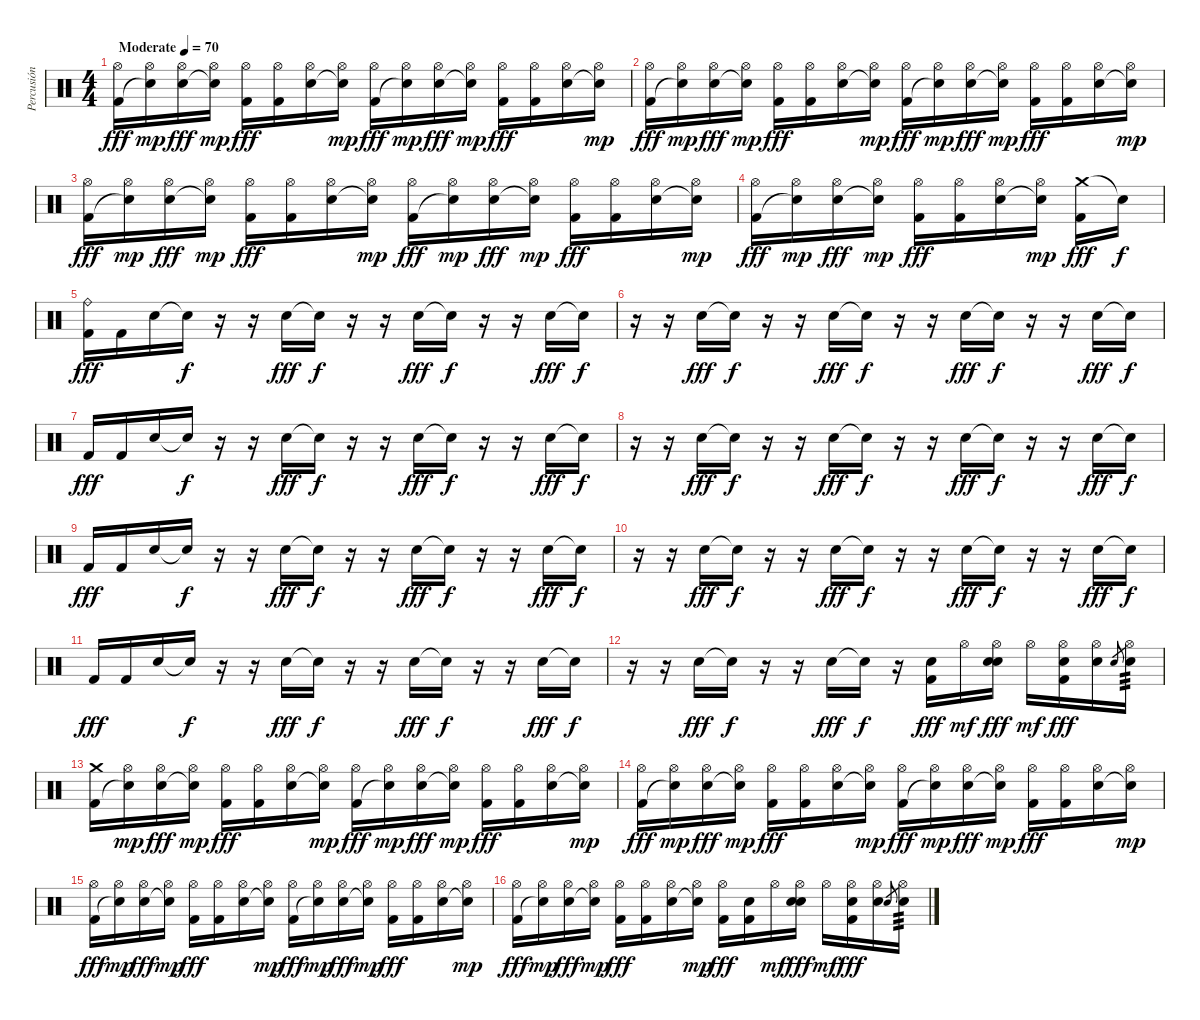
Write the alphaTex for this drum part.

\track ("Percusión" "Percusión") {instrument percussion}
\staff {score}
\articulation defaults
\ts (4 4)
\tempo (70 "Moderate")
\clef neutral
\ks c
("Hi-Hat (open)" "Kick (hit) 2").16{dy fff} ("Hi-Hat (open)" "Snare (hit)"{t}).16{dy mp} ("Hi-Hat (open)" "Electric Snare (hit)").16{dy fff} ("Hi-Hat (open)" "Snare (hit)"{t}).16{dy mp} ("Hi-Hat (open)" "Kick (hit) 2").16{dy fff} ("Hi-Hat (open)" "Kick (hit) 2").16 ("Hi-Hat (open)" "Electric Snare (hit)").16 ("Hi-Hat (open)" "Snare (hit)"{t}).16{dy mp} ("Hi-Hat (open)" "Kick (hit) 2").16{dy fff} ("Hi-Hat (open)" "Snare (hit)"{t}).16{dy mp} ("Hi-Hat (open)" "Electric Snare (hit)").16{dy fff} ("Hi-Hat (open)" "Snare (hit)"{t}).16{dy mp} ("Hi-Hat (open)" "Kick (hit) 2").16{dy fff} ("Hi-Hat (open)" "Kick (hit) 2").16 ("Hi-Hat (open)" "Electric Snare (hit)").16 ("Hi-Hat (open)" "Snare (hit)"{t}).16{dy mp} |
("Hi-Hat (open)" "Kick (hit) 2").16{dy fff} ("Hi-Hat (open)" "Snare (hit)"{t}).16{dy mp} ("Hi-Hat (open)" "Electric Snare (hit)").16{dy fff} ("Hi-Hat (open)" "Snare (hit)"{t}).16{dy mp} ("Hi-Hat (open)" "Kick (hit) 2").16{dy fff} ("Hi-Hat (open)" "Kick (hit) 2").16 ("Hi-Hat (open)" "Electric Snare (hit)").16 ("Hi-Hat (open)" "Snare (hit)"{t}).16{dy mp} ("Hi-Hat (open)" "Kick (hit) 2").16{dy fff} ("Hi-Hat (open)" "Snare (hit)"{t}).16{dy mp} ("Hi-Hat (open)" "Electric Snare (hit)").16{dy fff} ("Hi-Hat (open)" "Snare (hit)"{t}).16{dy mp} ("Hi-Hat (open)" "Kick (hit) 2").16{dy fff} ("Hi-Hat (open)" "Kick (hit) 2").16 ("Hi-Hat (open)" "Electric Snare (hit)").16 ("Hi-Hat (open)" "Snare (hit)"{t}).16{dy mp} |
("Hi-Hat (open)" "Kick (hit) 2").16{dy fff} ("Hi-Hat (open)" "Snare (hit)"{t}).16{dy mp} ("Hi-Hat (open)" "Electric Snare (hit)").16{dy fff} ("Hi-Hat (open)" "Snare (hit)"{t}).16{dy mp} ("Hi-Hat (open)" "Kick (hit) 2").16{dy fff} ("Hi-Hat (open)" "Kick (hit) 2").16 ("Hi-Hat (open)" "Electric Snare (hit)").16 ("Hi-Hat (open)" "Snare (hit)"{t}).16{dy mp} ("Hi-Hat (open)" "Kick (hit) 2").16{dy fff} ("Hi-Hat (open)" "Snare (hit)"{t}).16{dy mp} ("Hi-Hat (open)" "Electric Snare (hit)").16{dy fff} ("Hi-Hat (open)" "Snare (hit)"{t}).16{dy mp} ("Hi-Hat (open)" "Kick (hit) 2").16{dy fff} ("Hi-Hat (open)" "Kick (hit) 2").16 ("Hi-Hat (open)" "Electric Snare (hit)").16 ("Hi-Hat (open)" "Snare (hit)"{t}).16{dy mp} |
("Hi-Hat (open)" "Kick (hit) 2").16{dy fff} ("Hi-Hat (open)" "Snare (hit)"{t}).16{dy mp} ("Hi-Hat (open)" "Electric Snare (hit)").16{dy fff} ("Hi-Hat (open)" "Snare (hit)"{t}).16{dy mp} ("Hi-Hat (open)" "Kick (hit) 2").16{dy fff} ("Hi-Hat (open)" "Kick (hit) 2").16 ("Hi-Hat (open)" "Electric Snare (hit)").16 ("Hi-Hat (open)" "Snare (hit)"{t}).16{dy mp} ("Crash medium (hit)" "Kick (hit) 2").16{dy fff} "Snare (hit)"{t}.16{dy f} |
("Ride (bell)" "Kick (hit) 2").16{dy fff} "Kick (hit) 2".16 "Electric Snare (hit)".16 "Snare (hit)"{t}.16{dy f} r.16 r.16 "Electric Snare (hit)".16{dy fff} "Snare (hit)"{t}.16{dy f} r.16 r.16 "Electric Snare (hit)".16{dy fff} "Snare (hit)"{t}.16{dy f} r.16 r.16 "Electric Snare (hit)".16{dy fff} "Snare (hit)"{t}.16{dy f} |
r.16 r.16 "Electric Snare (hit)".16{dy fff} "Snare (hit)"{t}.16{dy f} r.16 r.16 "Electric Snare (hit)".16{dy fff} "Snare (hit)"{t}.16{dy f} r.16 r.16 "Electric Snare (hit)".16{dy fff} "Snare (hit)"{t}.16{dy f} r.16 r.16 "Electric Snare (hit)".16{dy fff} "Snare (hit)"{t}.16{dy f} |
"Kick (hit) 2".16{dy fff} "Kick (hit) 2".16 "Electric Snare (hit)".16 "Snare (hit)"{t}.16{dy f} r.16 r.16 "Electric Snare (hit)".16{dy fff} "Snare (hit)"{t}.16{dy f} r.16 r.16 "Electric Snare (hit)".16{dy fff} "Snare (hit)"{t}.16{dy f} r.16 r.16 "Electric Snare (hit)".16{dy fff} "Snare (hit)"{t}.16{dy f} |
r.16 r.16 "Electric Snare (hit)".16{dy fff} "Snare (hit)"{t}.16{dy f} r.16 r.16 "Electric Snare (hit)".16{dy fff} "Snare (hit)"{t}.16{dy f} r.16 r.16 "Electric Snare (hit)".16{dy fff} "Snare (hit)"{t}.16{dy f} r.16 r.16 "Electric Snare (hit)".16{dy fff} "Snare (hit)"{t}.16{dy f} |
"Kick (hit) 2".16{dy fff} "Kick (hit) 2".16 "Electric Snare (hit)".16 "Snare (hit)"{t}.16{dy f} r.16 r.16 "Electric Snare (hit)".16{dy fff} "Snare (hit)"{t}.16{dy f} r.16 r.16 "Electric Snare (hit)".16{dy fff} "Snare (hit)"{t}.16{dy f} r.16 r.16 "Electric Snare (hit)".16{dy fff} "Snare (hit)"{t}.16{dy f} |
r.16 r.16 "Electric Snare (hit)".16{dy fff} "Snare (hit)"{t}.16{dy f} r.16 r.16 "Electric Snare (hit)".16{dy fff} "Snare (hit)"{t}.16{dy f} r.16 r.16 "Electric Snare (hit)".16{dy fff} "Snare (hit)"{t}.16{dy f} r.16 r.16 "Electric Snare (hit)".16{dy fff} "Snare (hit)"{t}.16{dy f} |
"Kick (hit) 2".16{dy fff} "Kick (hit) 2".16 "Electric Snare (hit)".16 "Snare (hit)"{t}.16{dy f} r.16 r.16 "Electric Snare (hit)".16{dy fff} "Snare (hit)"{t}.16{dy f} r.16 r.16 "Electric Snare (hit)".16{dy fff} "Snare (hit)"{t}.16{dy f} r.16 r.16 "Electric Snare (hit)".16{dy fff} "Snare (hit)"{t}.16{dy f} |
r.16 r.16 "Electric Snare (hit)".16{dy fff} "Snare (hit)"{t}.16{dy f} r.16 r.16 "Electric Snare (hit)".16{dy fff} "Snare (hit)"{t}.16{dy f} r.16 ("Electric Snare (hit)" "Kick (hit) 2").16{dy fff} "Hi-Hat (open)".16{dy mf} ("Hi-Hat (open)" "Electric Snare (hit)" "Snare (hit)").16{dy fff} "Hi-Hat (open)".16{dy mf} ("Hi-Hat (open)" "Electric Snare (hit)" "Kick (hit) 2").16{dy fff} ("Hi-Hat (open)" "Electric Snare (hit)").16 "Electric Snare (hit)".8{gr} ("Hi-Hat (open)" "Electric Snare (hit)").16{tp 3} |
("Crash medium (hit)" "Kick (hit) 2").16 ("Hi-Hat (open)" "Snare (hit)"{t}).16{dy mp} ("Hi-Hat (open)" "Electric Snare (hit)").16{dy fff} ("Hi-Hat (open)" "Snare (hit)"{t}).16{dy mp} ("Hi-Hat (open)" "Kick (hit) 2").16{dy fff} ("Hi-Hat (open)" "Kick (hit) 2").16 ("Hi-Hat (open)" "Electric Snare (hit)").16 ("Hi-Hat (open)" "Snare (hit)"{t}).16{dy mp} ("Hi-Hat (open)" "Kick (hit) 2").16{dy fff} ("Hi-Hat (open)" "Snare (hit)"{t}).16{dy mp} ("Hi-Hat (open)" "Electric Snare (hit)").16{dy fff} ("Hi-Hat (open)" "Snare (hit)"{t}).16{dy mp} ("Hi-Hat (open)" "Kick (hit) 2").16{dy fff} ("Hi-Hat (open)" "Kick (hit) 2").16 ("Hi-Hat (open)" "Electric Snare (hit)").16 ("Hi-Hat (open)" "Snare (hit)"{t}).16{dy mp} |
("Hi-Hat (open)" "Kick (hit) 2").16{dy fff} ("Hi-Hat (open)" "Snare (hit)"{t}).16{dy mp} ("Hi-Hat (open)" "Electric Snare (hit)").16{dy fff} ("Hi-Hat (open)" "Snare (hit)"{t}).16{dy mp} ("Hi-Hat (open)" "Kick (hit) 2").16{dy fff} ("Hi-Hat (open)" "Kick (hit) 2").16 ("Hi-Hat (open)" "Electric Snare (hit)").16 ("Hi-Hat (open)" "Snare (hit)"{t}).16{dy mp} ("Hi-Hat (open)" "Kick (hit) 2").16{dy fff} ("Hi-Hat (open)" "Snare (hit)"{t}).16{dy mp} ("Hi-Hat (open)" "Electric Snare (hit)").16{dy fff} ("Hi-Hat (open)" "Snare (hit)"{t}).16{dy mp} ("Hi-Hat (open)" "Kick (hit) 2").16{dy fff} ("Hi-Hat (open)" "Kick (hit) 2").16 ("Hi-Hat (open)" "Electric Snare (hit)").16 ("Hi-Hat (open)" "Snare (hit)"{t}).16{dy mp} |
("Hi-Hat (open)" "Kick (hit) 2").16{dy fff} ("Hi-Hat (open)" "Snare (hit)"{t}).16{dy mp} ("Hi-Hat (open)" "Electric Snare (hit)").16{dy fff} ("Hi-Hat (open)" "Snare (hit)"{t}).16{dy mp} ("Hi-Hat (open)" "Kick (hit) 2").16{dy fff} ("Hi-Hat (open)" "Kick (hit) 2").16 ("Hi-Hat (open)" "Electric Snare (hit)").16 ("Hi-Hat (open)" "Snare (hit)"{t}).16{dy mp} ("Hi-Hat (open)" "Kick (hit) 2").16{dy fff} ("Hi-Hat (open)" "Snare (hit)"{t}).16{dy mp} ("Hi-Hat (open)" "Electric Snare (hit)").16{dy fff} ("Hi-Hat (open)" "Snare (hit)"{t}).16{dy mp} ("Hi-Hat (open)" "Kick (hit) 2").16{dy fff} ("Hi-Hat (open)" "Kick (hit) 2").16 ("Hi-Hat (open)" "Electric Snare (hit)").16 ("Hi-Hat (open)" "Snare (hit)"{t}).16{dy mp} |
("Hi-Hat (open)" "Kick (hit) 2").16{dy fff} ("Hi-Hat (open)" "Snare (hit)"{t}).16{dy mp} ("Hi-Hat (open)" "Electric Snare (hit)").16{dy fff} ("Hi-Hat (open)" "Snare (hit)"{t}).16{dy mp} ("Hi-Hat (open)" "Kick (hit) 2").16{dy fff} ("Hi-Hat (open)" "Kick (hit) 2").16 ("Hi-Hat (open)" "Electric Snare (hit)").16 ("Hi-Hat (open)" "Snare (hit)"{t}).16{dy mp} ("Hi-Hat (open)" "Kick (hit) 2").16{dy fff} ("Electric Snare (hit)" "Kick (hit) 2").16 "Hi-Hat (open)".16{dy mf} ("Hi-Hat (open)" "Electric Snare (hit)" "Snare (hit)").16{dy fff} "Hi-Hat (open)".16{dy mf} ("Hi-Hat (open)" "Electric Snare (hit)" "Kick (hit) 2").16{dy fff} ("Hi-Hat (open)" "Electric Snare (hit)").16 "Electric Snare (hit)".8{gr} ("Hi-Hat (open)" "Electric Snare (hit)").16{tp 3}
